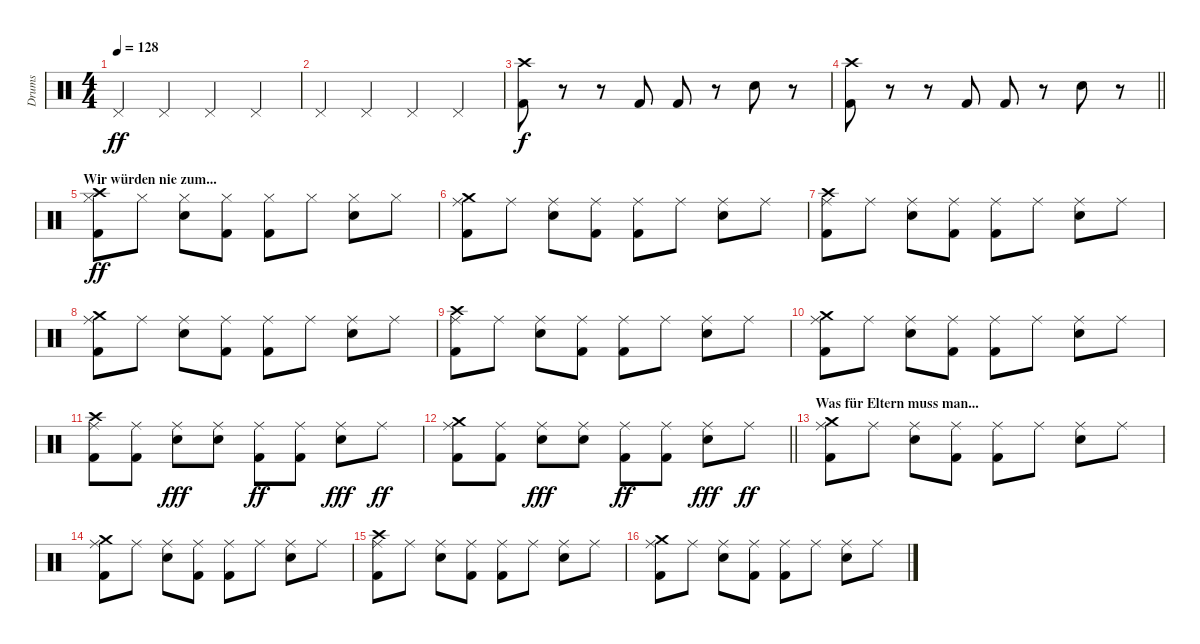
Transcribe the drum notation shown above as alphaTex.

\track ("Drums" "Drums") {instrument percussion}
\staff {score}
\articulation defaults
\ts (4 4)
\tempo 128
\clef neutral
\ks c "Pedal Hi-Hat (hit)".4{dy ff} "Pedal Hi-Hat (hit)".4 "Pedal Hi-Hat (hit)".4 "Pedal Hi-Hat (hit)".4
|
"Pedal Hi-Hat (hit)".4 "Pedal Hi-Hat (hit)".4 "Pedal Hi-Hat (hit)".4 "Pedal Hi-Hat (hit)".4 |
("Kick (hit) 2" "Crash high (hit)").8{dy f} r.8 r.8 "Kick (hit) 2".8 "Kick (hit) 2".8 r.8 "Snare (hit) 2".8 r.8 |
\barLineRight lightlight
("Kick (hit) 2" "Crash high (hit)").8 r.8 r.8 "Kick (hit) 2".8 "Kick (hit) 2".8 r.8 "Snare (hit) 2".8 r.8 |
\section ("" "Wir würden nie zum...")
("Hi-Hat (closed)" "Kick (hit) 2" "Crash high (hit)").8{dy ff} "Hi-Hat (closed)".8 ("Hi-Hat (closed)" "Snare (hit) 2").8 ("Hi-Hat (closed)" "Kick (hit) 2").8 ("Hi-Hat (closed)" "Kick (hit) 2").8 "Hi-Hat (closed)".8 ("Hi-Hat (closed)" "Snare (hit) 2").8 "Hi-Hat (closed)".8 |
("Ride (middle)" "Kick (hit) 2" "Crash medium (hit)").8 "Ride (middle)".8 ("Ride (middle)" "Snare (hit) 2").8 ("Ride (middle)" "Kick (hit) 2").8 ("Ride (middle)" "Kick (hit) 2").8 "Ride (middle)".8 ("Ride (middle)" "Snare (hit) 2").8 "Ride (middle)".8 |
("Ride (middle)" "Kick (hit) 2" "Crash high (hit)").8 "Ride (middle)".8 ("Ride (middle)" "Snare (hit) 2").8 ("Ride (middle)" "Kick (hit) 2").8 ("Ride (middle)" "Kick (hit) 2").8 "Ride (middle)".8 ("Ride (middle)" "Snare (hit) 2").8 "Ride (middle)".8 |
("Ride (middle)" "Kick (hit) 2" "Crash medium (hit)").8 "Ride (middle)".8 ("Ride (middle)" "Snare (hit) 2").8 ("Ride (middle)" "Kick (hit) 2").8 ("Ride (middle)" "Kick (hit) 2").8 "Ride (middle)".8 ("Ride (middle)" "Snare (hit) 2").8 "Ride (middle)".8 |
("Ride (middle)" "Kick (hit) 2" "Crash high (hit)").8 "Ride (middle)".8 ("Ride (middle)" "Snare (hit) 2").8 ("Ride (middle)" "Kick (hit) 2").8 ("Ride (middle)" "Kick (hit) 2").8 "Ride (middle)".8 ("Ride (middle)" "Snare (hit) 2").8 "Ride (middle)".8 |
("Ride (middle)" "Kick (hit) 2" "Crash medium (hit)").8 "Ride (middle)".8 ("Ride (middle)" "Snare (hit) 2").8 ("Ride (middle)" "Kick (hit) 2").8 ("Ride (middle)" "Kick (hit) 2").8 "Ride (middle)".8 ("Ride (middle)" "Snare (hit) 2").8 "Ride (middle)".8 |
("Ride (middle)" "Kick (hit) 2" "Crash high (hit)").8 ("Ride (middle)" "Kick (hit) 2").8 ("Ride (middle)" "Snare (hit) 2").8{dy fff} ("Ride (middle)" "Snare (hit) 2").8 ("Ride (middle)" "Kick (hit) 2").8{dy ff} ("Ride (middle)" "Kick (hit) 2").8 ("Ride (middle)" "Snare (hit) 2").8{dy fff} "Ride (middle)".8{dy ff} |
\barLineRight lightlight
("Ride (middle)" "Kick (hit) 2" "Crash medium (hit)").8 ("Ride (middle)" "Kick (hit) 2").8 ("Ride (middle)" "Snare (hit) 2").8{dy fff} ("Ride (middle)" "Snare (hit) 2").8 ("Ride (middle)" "Kick (hit) 2").8{dy ff} ("Ride (middle)" "Kick (hit) 2").8 ("Ride (middle)" "Snare (hit) 2").8{dy fff} "Ride (middle)".8{dy ff} |
\section ("" "Was für Eltern muss man...")
("Ride (middle)" "Kick (hit) 2" "Crash medium (hit)").8 "Ride (middle)".8 ("Ride (middle)" "Snare (hit) 2").8 ("Ride (middle)" "Kick (hit) 2").8 ("Ride (middle)" "Kick (hit) 2").8 "Ride (middle)".8 ("Ride (middle)" "Snare (hit) 2").8 "Ride (middle)".8 |
("Ride (middle)" "Kick (hit) 2" "Crash medium (hit)").8 "Ride (middle)".8 ("Ride (middle)" "Snare (hit) 2").8 ("Ride (middle)" "Kick (hit) 2").8 ("Ride (middle)" "Kick (hit) 2").8 "Ride (middle)".8 ("Ride (middle)" "Snare (hit) 2").8 "Ride (middle)".8 |
("Ride (middle)" "Kick (hit) 2" "Crash high (hit)").8 "Ride (middle)".8 ("Ride (middle)" "Snare (hit) 2").8 ("Ride (middle)" "Kick (hit) 2").8 ("Ride (middle)" "Kick (hit) 2").8 "Ride (middle)".8 ("Ride (middle)" "Snare (hit) 2").8 "Ride (middle)".8 |
("Ride (middle)" "Kick (hit) 2" "Crash medium (hit)").8 "Ride (middle)".8 ("Ride (middle)" "Snare (hit) 2").8 ("Ride (middle)" "Kick (hit) 2").8 ("Ride (middle)" "Kick (hit) 2").8 "Ride (middle)".8 ("Ride (middle)" "Snare (hit) 2").8 "Ride (middle)".8
